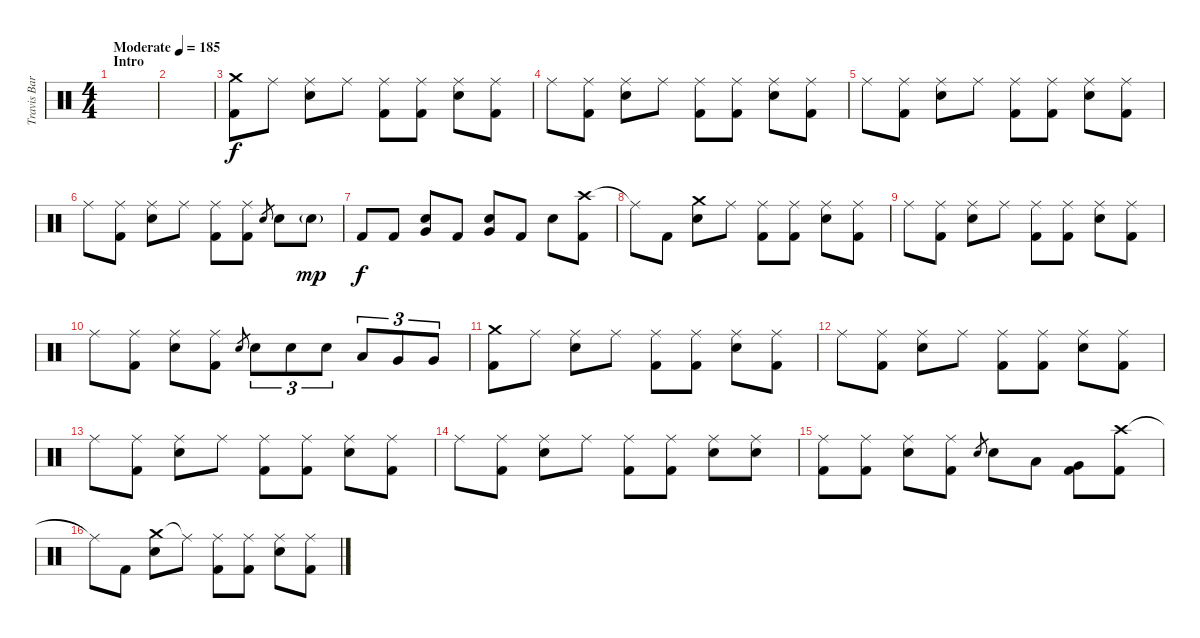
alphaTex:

\track ("Travis Barker - Drums" "Travis Bar") {instrument percussion}
\staff {score}
\articulation defaults
\ts (4 4)
\section ("" "Intro")
\tempo (185 "Moderate")
\clef neutral
\ks c
|
|
("Crash medium (hit)" "Kick (hit) 2").8 "Ride (middle)".8 ("Ride (middle)" "Electric Snare (hit)").8 "Ride (middle)".8 ("Ride (middle)" "Kick (hit) 2").8 ("Ride (middle)" "Kick (hit) 2").8 ("Ride (middle)" "Electric Snare (hit)").8 ("Ride (middle)" "Kick (hit) 2").8 |
"Ride (middle)".8 ("Ride (middle)" "Kick (hit) 2").8 ("Ride (middle)" "Electric Snare (hit)").8 "Ride (middle)".8 ("Ride (middle)" "Kick (hit) 2").8 ("Ride (middle)" "Kick (hit) 2").8 ("Ride (middle)" "Electric Snare (hit)").8 ("Ride (middle)" "Kick (hit) 2").8 |
"Ride (middle)".8 ("Ride (middle)" "Kick (hit) 2").8 ("Ride (middle)" "Electric Snare (hit)").8 "Ride (middle)".8 ("Ride (middle)" "Kick (hit) 2").8 ("Ride (middle)" "Kick (hit) 2").8 ("Ride (middle)" "Electric Snare (hit)").8 ("Ride (middle)" "Kick (hit) 2").8 |
"Ride (middle)".8 ("Ride (middle)" "Kick (hit) 2").8 ("Ride (middle)" "Electric Snare (hit)").8 "Ride (middle)".8 ("Ride (middle)" "Kick (hit) 2").8 ("Ride (middle)" "Kick (hit) 2").8 "Electric Snare (hit)".8{gr} "Electric Snare (hit)".8 "Electric Snare (hit)"{g}.8{dy mp} |
"Kick (hit) 2".8{dy f} "Kick (hit) 2".8 ("Very Low Tom (hit)" "Electric Snare (hit)").8 "Kick (hit) 2".8 ("Very Low Tom (hit)" "Electric Snare (hit)").8 "Kick (hit) 2".8 "Electric Snare (hit)".8 ("Crash high (hit)" "Kick (hit) 2").8 |
"Ride (middle)"{t}.8 "Kick (hit) 2".8 ("Crash medium (hit)" "Electric Snare (hit)").8 "Ride (middle)".8 ("Ride (middle)" "Kick (hit) 2").8 ("Ride (middle)" "Kick (hit) 2").8 ("Ride (middle)" "Electric Snare (hit)").8 ("Ride (middle)" "Kick (hit) 2").8 |
"Ride (middle)".8 ("Ride (middle)" "Kick (hit) 2").8 ("Ride (middle)" "Electric Snare (hit)").8 "Ride (middle)".8 ("Ride (middle)" "Kick (hit) 2").8 ("Ride (middle)" "Kick (hit) 2").8 ("Ride (middle)" "Electric Snare (hit)").8 ("Ride (middle)" "Kick (hit) 2").8 |
"Ride (middle)".8 ("Ride (middle)" "Kick (hit) 2").8 ("Ride (middle)" "Electric Snare (hit)").8 ("Ride (middle)" "Kick (hit) 2").8 "Electric Snare (hit)".8{gr} "Electric Snare (hit)".8{tu (3 2)} "Electric Snare (hit)".8{tu (3 2)} "Electric Snare (hit)".8{tu (3 2)} "Low Tom (hit)".8{tu (3 2)} "Very Low Tom (hit)".8{tu (3 2)} "Very Low Tom (hit)".8{tu (3 2)} |
("Crash medium (hit)" "Kick (hit) 2").8 "Ride (middle)".8 ("Ride (middle)" "Electric Snare (hit)").8 "Ride (middle)".8 ("Ride (middle)" "Kick (hit) 2").8 ("Ride (middle)" "Kick (hit) 2").8 ("Ride (middle)" "Electric Snare (hit)").8 ("Ride (middle)" "Kick (hit) 2").8 |
"Ride (middle)".8 ("Ride (middle)" "Kick (hit) 2").8 ("Ride (middle)" "Electric Snare (hit)").8 "Ride (middle)".8 ("Ride (middle)" "Kick (hit) 2").8 ("Ride (middle)" "Kick (hit) 2").8 ("Ride (middle)" "Electric Snare (hit)").8 ("Ride (middle)" "Kick (hit) 2").8 |
"Ride (middle)".8 ("Ride (middle)" "Kick (hit) 2").8 ("Ride (middle)" "Electric Snare (hit)").8 "Ride (middle)".8 ("Ride (middle)" "Kick (hit) 2").8 ("Ride (middle)" "Kick (hit) 2").8 ("Ride (middle)" "Electric Snare (hit)").8 ("Ride (middle)" "Kick (hit) 2").8 |
"Ride (middle)".8 ("Ride (middle)" "Kick (hit) 2").8 ("Ride (middle)" "Electric Snare (hit)").8 "Ride (middle)".8 ("Ride (middle)" "Kick (hit) 2").8 ("Ride (middle)" "Kick (hit) 2").8 ("Ride (middle)" "Electric Snare (hit)").8 ("Ride (middle)" "Electric Snare (hit)").8 |
("Ride (middle)" "Kick (hit) 2").8 ("Ride (middle)" "Kick (hit) 2").8 ("Ride (middle)" "Electric Snare (hit)").8 ("Ride (middle)" "Kick (hit) 2").8 "Electric Snare (hit)".8{gr} "Electric Snare (hit)".8 "Low Tom (hit)".8 ("Very Low Tom (hit)" "Kick (hit) 2").8 ("Crash high (hit)" "Kick (hit) 2").8 |
"Ride (middle)"{t}.8 "Kick (hit) 2".8 ("Crash medium (hit)" "Electric Snare (hit)").8 "Ride (middle)"{t}.8 ("Ride (middle)" "Kick (hit) 2").8 ("Ride (middle)" "Kick (hit) 2").8 ("Ride (middle)" "Electric Snare (hit)").8 ("Ride (middle)" "Kick (hit) 2").8
